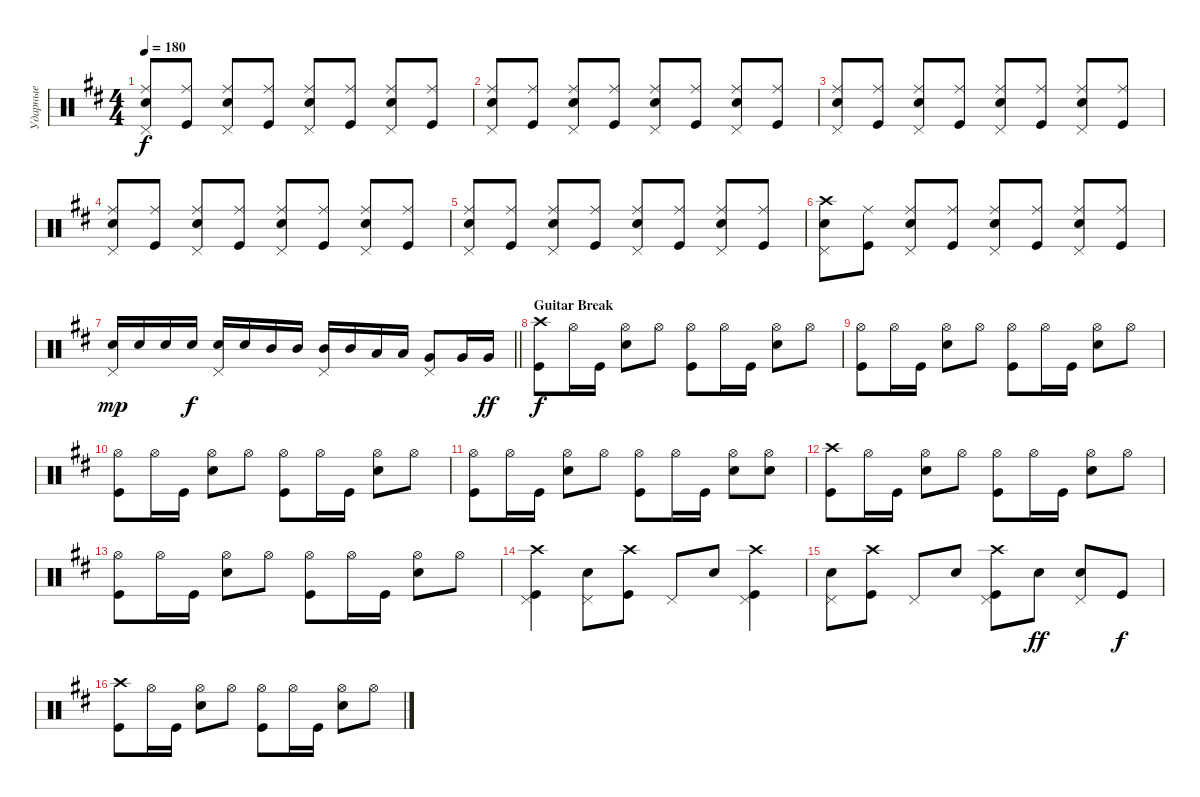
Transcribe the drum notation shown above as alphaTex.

\track ("Ударные" "Ударные") {instrument percussion}
\staff {score}
\articulation defaults
\ts (4 4)
\tempo 180
\clef neutral
\ks bminor
("Ride (middle)" "Snare (hit) 2" "Pedal Hi-Hat (hit)").8{dy f} ("Kick (hit)" "Ride (middle)").8 ("Pedal Hi-Hat (hit)" "Snare (hit) 2" "Ride (middle)").8 ("Kick (hit)" "Ride (middle)").8 ("Pedal Hi-Hat (hit)" "Snare (hit) 2" "Ride (middle)").8 ("Kick (hit)" "Ride (middle)").8 ("Pedal Hi-Hat (hit)" "Snare (hit) 2" "Ride (middle)").8 ("Kick (hit)" "Ride (middle)").8 |
("Ride (middle)" "Snare (hit) 2" "Pedal Hi-Hat (hit)").8 ("Kick (hit)" "Ride (middle)").8 ("Pedal Hi-Hat (hit)" "Snare (hit) 2" "Ride (middle)").8 ("Kick (hit)" "Ride (middle)").8 ("Pedal Hi-Hat (hit)" "Snare (hit) 2" "Ride (middle)").8 ("Kick (hit)" "Ride (middle)").8 ("Pedal Hi-Hat (hit)" "Snare (hit) 2" "Ride (middle)").8 ("Kick (hit)" "Ride (middle)").8 |
("Ride (middle)" "Snare (hit) 2" "Pedal Hi-Hat (hit)").8 ("Kick (hit)" "Ride (middle)").8 ("Pedal Hi-Hat (hit)" "Snare (hit) 2" "Ride (middle)").8 ("Kick (hit)" "Ride (middle)").8 ("Pedal Hi-Hat (hit)" "Snare (hit) 2" "Ride (middle)").8 ("Kick (hit)" "Ride (middle)").8 ("Pedal Hi-Hat (hit)" "Snare (hit) 2" "Ride (middle)").8 ("Kick (hit)" "Ride (middle)").8 |
("Ride (middle)" "Snare (hit) 2" "Pedal Hi-Hat (hit)").8 ("Kick (hit)" "Ride (middle)").8 ("Pedal Hi-Hat (hit)" "Snare (hit) 2" "Ride (middle)").8 ("Kick (hit)" "Ride (middle)").8 ("Pedal Hi-Hat (hit)" "Snare (hit) 2" "Ride (middle)").8 ("Kick (hit)" "Ride (middle)").8 ("Pedal Hi-Hat (hit)" "Snare (hit) 2" "Ride (middle)").8 ("Kick (hit)" "Ride (middle)").8 |
("Ride (middle)" "Snare (hit) 2" "Pedal Hi-Hat (hit)").8 ("Kick (hit)" "Ride (middle)").8 ("Pedal Hi-Hat (hit)" "Snare (hit) 2" "Ride (middle)").8 ("Kick (hit)" "Ride (middle)").8 ("Pedal Hi-Hat (hit)" "Snare (hit) 2" "Ride (middle)").8 ("Kick (hit)" "Ride (middle)").8 ("Pedal Hi-Hat (hit)" "Snare (hit) 2" "Ride (middle)").8 ("Kick (hit)" "Ride (middle)").8 |
("Crash high (hit)" "Snare (hit) 2" "Pedal Hi-Hat (hit)").8 ("Kick (hit)" "Ride (middle)").8 ("Pedal Hi-Hat (hit)" "Snare (hit) 2" "Ride (middle)").8 ("Kick (hit)" "Ride (middle)").8 ("Pedal Hi-Hat (hit)" "Snare (hit) 2" "Ride (middle)").8 ("Kick (hit)" "Ride (middle)").8 ("Pedal Hi-Hat (hit)" "Snare (hit) 2" "Ride (middle)").8 ("Kick (hit)" "Ride (middle)").8 |
\barLineRight lightlight
("Snare (hit) 2" "Pedal Hi-Hat (hit)").16{dy mp} "Snare (hit) 2".16 "Snare (hit) 2".16 "Snare (hit) 2".16{dy f} ("Snare (hit) 2" "Pedal Hi-Hat (hit)").16 "Snare (hit) 2".16 "Mid Tom (hit)".16 "Mid Tom (hit)".16 ("Mid Tom (hit)" "Pedal Hi-Hat (hit)").16 "Mid Tom (hit)".16 "Low Tom (hit)".16 "Low Tom (hit)".16 ("Very Low Tom (hit)" "Pedal Hi-Hat (hit)").8 "Very Low Tom (hit)".16 "Very Low Tom (hit)".16{dy ff} |
\section ("" "Guitar Break")
("Kick (hit)" "Crash high (hit)").8{dy f} "Hi-Hat (open)".16 "Kick (hit)".16 ("Hi-Hat (open)" "Snare (hit) 2").8 "Hi-Hat (open)".8 ("Kick (hit)" "Hi-Hat (open)").8 "Hi-Hat (open)".16 "Kick (hit)".16 ("Snare (hit) 2" "Hi-Hat (open)").8 "Hi-Hat (open)".8 |
("Kick (hit)" "Hi-Hat (open)").8 "Hi-Hat (open)".16 "Kick (hit)".16 ("Hi-Hat (open)" "Snare (hit) 2").8 "Hi-Hat (open)".8 ("Kick (hit)" "Hi-Hat (open)").8 "Hi-Hat (open)".16 "Kick (hit)".16 ("Snare (hit) 2" "Hi-Hat (open)").8 "Hi-Hat (open)".8 |
("Kick (hit)" "Hi-Hat (open)").8 "Hi-Hat (open)".16 "Kick (hit)".16 ("Hi-Hat (open)" "Snare (hit) 2").8 "Hi-Hat (open)".8 ("Kick (hit)" "Hi-Hat (open)").8 "Hi-Hat (open)".16 "Kick (hit)".16 ("Snare (hit) 2" "Hi-Hat (open)").8 "Hi-Hat (open)".8 |
("Kick (hit)" "Hi-Hat (open)").8 "Hi-Hat (open)".16 "Kick (hit)".16 ("Hi-Hat (open)" "Snare (hit) 2").8 "Hi-Hat (open)".8 ("Kick (hit)" "Hi-Hat (open)").8 "Hi-Hat (open)".16 "Kick (hit)".16 ("Snare (hit) 2" "Hi-Hat (open)").8 ("Hi-Hat (open)" "Snare (hit) 2").8 |
("Kick (hit)" "Crash high (hit)").8 "Hi-Hat (open)".16 "Kick (hit)".16 ("Hi-Hat (open)" "Snare (hit) 2").8 "Hi-Hat (open)".8 ("Kick (hit)" "Hi-Hat (open)").8 "Hi-Hat (open)".16 "Kick (hit)".16 ("Snare (hit) 2" "Hi-Hat (open)").8 "Hi-Hat (open)".8 |
("Kick (hit)" "Hi-Hat (open)").8 "Hi-Hat (open)".16 "Kick (hit)".16 ("Hi-Hat (open)" "Snare (hit) 2").8 "Hi-Hat (open)".8 ("Kick (hit)" "Hi-Hat (open)").8 "Hi-Hat (open)".16 "Kick (hit)".16 ("Snare (hit) 2" "Hi-Hat (open)").8 "Hi-Hat (open)".8 |
("Kick (hit)" "Crash high (hit)" "Pedal Hi-Hat (hit)").4 ("Snare (hit) 2" "Pedal Hi-Hat (hit)").8 ("Kick (hit)" "Crash high (hit)").8 "Pedal Hi-Hat (hit)".8 "Snare (hit) 2".8 ("Kick (hit)" "Crash high (hit)" "Pedal Hi-Hat (hit)").4 |
("Snare (hit) 2" "Pedal Hi-Hat (hit)").8 ("Kick (hit)" "Crash high (hit)").8 "Pedal Hi-Hat (hit)".8 "Snare (hit) 2".8 ("Kick (hit)" "Crash high (hit)" "Pedal Hi-Hat (hit)").8 "Snare (hit) 2".8{dy ff} ("Snare (hit) 2" "Pedal Hi-Hat (hit)").8 "Kick (hit)".8{dy f} |
("Kick (hit)" "Crash high (hit)").8 "Hi-Hat (open)".16 "Kick (hit)".16 ("Hi-Hat (open)" "Snare (hit) 2").8 "Hi-Hat (open)".8 ("Kick (hit)" "Hi-Hat (open)").8 "Hi-Hat (open)".16 "Kick (hit)".16 ("Snare (hit) 2" "Hi-Hat (open)").8 "Hi-Hat (open)".8
